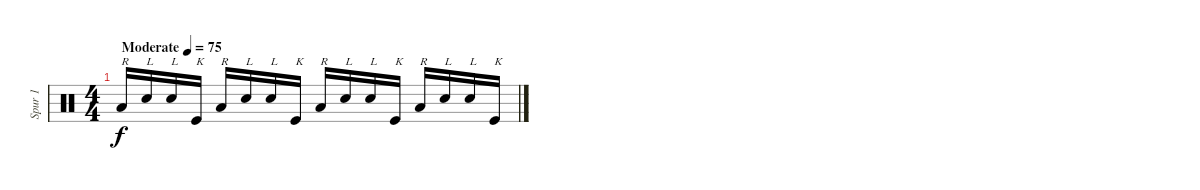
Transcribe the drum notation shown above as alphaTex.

\track ("Spur 1" "Spur 1") {instrument percussion}
\staff {score}
\articulation defaults
\ts (4 4)
\tempo (75 "Moderate")
\clef neutral
\ks c "Low Floor Tom (hit)".16{txt "R" dy f} "Snare (hit) 2".16{txt "L"} "Snare (hit) 2".16{txt "L"} "Kick (hit)".16{txt "K"} "Low Floor Tom (hit)".16{txt "R"} "Snare (hit) 2".16{txt "L"} "Snare (hit) 2".16{txt "L"} "Kick (hit)".16{txt "K"} "Low Floor Tom (hit)".16{txt "R"} "Snare (hit) 2".16{txt "L"} "Snare (hit) 2".16{txt "L"} "Kick (hit)".16{txt "K"} "Low Floor Tom (hit)".16{txt "R"} "Snare (hit) 2".16{txt "L"} "Snare (hit) 2".16{txt "L"} "Kick (hit)".16{txt "K"}
